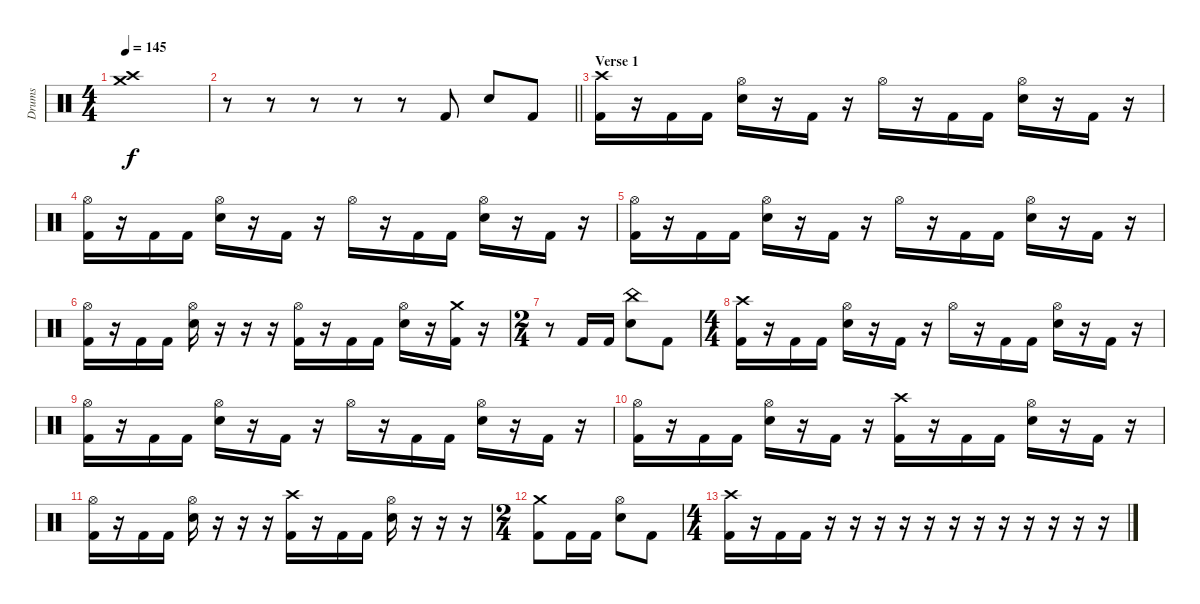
\track ("Drums" "Drums") {instrument percussion}
\staff {score}
\articulation defaults
\ts (4 4)
\tempo 145
\clef neutral
\ks c
("Crash medium (hit)" "Crash high (hit)").1{dy f} |
\barLineRight lightlight
r.8 r.8 r.8 r.8 r.8 "Kick (hit) 2".8 "Electric Snare (hit)".8 "Kick (hit) 2".8 |
\section ("" "Verse 1")
("Crash high (hit)" "Kick (hit) 2").16 r.16 "Kick (hit) 2".16 "Kick (hit) 2".16 ("Hi-Hat (open)" "Electric Snare (hit)").16 r.16 "Kick (hit) 2".16 r.16 "Hi-Hat (open)".16 r.16 "Kick (hit) 2".16 "Kick (hit) 2".16 ("Hi-Hat (open)" "Electric Snare (hit)").16 r.16 "Kick (hit) 2".16 r.16 |
("Hi-Hat (open)" "Kick (hit) 2").16 r.16 "Kick (hit) 2".16 "Kick (hit) 2".16 ("Hi-Hat (open)" "Electric Snare (hit)").16 r.16 "Kick (hit) 2".16 r.16 "Hi-Hat (open)".16 r.16 "Kick (hit) 2".16 "Kick (hit) 2".16 ("Hi-Hat (open)" "Electric Snare (hit)").16 r.16 "Kick (hit) 2".16 r.16 |
("Hi-Hat (open)" "Kick (hit) 2").16 r.16 "Kick (hit) 2".16 "Kick (hit) 2".16 ("Hi-Hat (open)" "Electric Snare (hit)").16 r.16 "Kick (hit) 2".16 r.16 "Hi-Hat (open)".16 r.16 "Kick (hit) 2".16 "Kick (hit) 2".16 ("Hi-Hat (open)" "Electric Snare (hit)").16 r.16 "Kick (hit) 2".16 r.16 |
("Hi-Hat (open)" "Kick (hit) 2").16 r.16 "Kick (hit) 2".16 "Kick (hit) 2".16 ("Hi-Hat (open)" "Electric Snare (hit)").16 r.16 r.16 r.16 ("Hi-Hat (open)" "Kick (hit) 2").16 r.16 "Kick (hit) 2".16 "Kick (hit) 2".16 ("Hi-Hat (open)" "Electric Snare (hit)").16 r.16 ("Crash medium (hit)" "Kick (hit) 2").16 r.16 |
\ts (2 4)
r.8 "Kick (hit) 2".16 "Kick (hit) 2".16 ("China (hit)" "Electric Snare (hit)").8 "Kick (hit) 2".8 |
\ts (4 4)
("Crash high (hit)" "Kick (hit) 2").16 r.16 "Kick (hit) 2".16 "Kick (hit) 2".16 ("Hi-Hat (open)" "Electric Snare (hit)").16 r.16 "Kick (hit) 2".16 r.16 "Hi-Hat (open)".16 r.16 "Kick (hit) 2".16 "Kick (hit) 2".16 ("Hi-Hat (open)" "Electric Snare (hit)").16 r.16 "Kick (hit) 2".16 r.16 |
("Hi-Hat (open)" "Kick (hit) 2").16 r.16 "Kick (hit) 2".16 "Kick (hit) 2".16 ("Hi-Hat (open)" "Electric Snare (hit)").16 r.16 "Kick (hit) 2".16 r.16 "Hi-Hat (open)".16 r.16 "Kick (hit) 2".16 "Kick (hit) 2".16 ("Hi-Hat (open)" "Electric Snare (hit)").16 r.16 "Kick (hit) 2".16 r.16 |
("Hi-Hat (open)" "Kick (hit) 2").16 r.16 "Kick (hit) 2".16 "Kick (hit) 2".16 ("Hi-Hat (open)" "Electric Snare (hit)").16 r.16 "Kick (hit) 2".16 r.16 ("Crash high (hit)" "Kick (hit) 2").16 r.16 "Kick (hit) 2".16 "Kick (hit) 2".16 ("Hi-Hat (open)" "Electric Snare (hit)").16 r.16 "Kick (hit) 2".16 r.16 |
("Hi-Hat (open)" "Kick (hit) 2").16 r.16 "Kick (hit) 2".16 "Kick (hit) 2".16 ("Hi-Hat (open)" "Electric Snare (hit)").16 r.16 r.16 r.16 ("Crash high (hit)" "Kick (hit) 2").16 r.16 "Kick (hit) 2".16 "Kick (hit) 2".16 ("Hi-Hat (open)" "Electric Snare (hit)").16 r.16 r.16 r.16 |
\ts (2 4)
("Crash medium (hit)" "Kick (hit) 2").8 "Kick (hit) 2".16 "Kick (hit) 2".16 ("Hi-Hat (open)" "Electric Snare (hit)").8 "Kick (hit) 2".8 |
\ts (4 4)
("Crash high (hit)" "Kick (hit) 2").16 r.16 "Kick (hit) 2".16 "Kick (hit) 2".16 r.16 r.16 r.16 r.16 r.16 r.16 r.16 r.16 r.16 r.16 r.16 r.16
